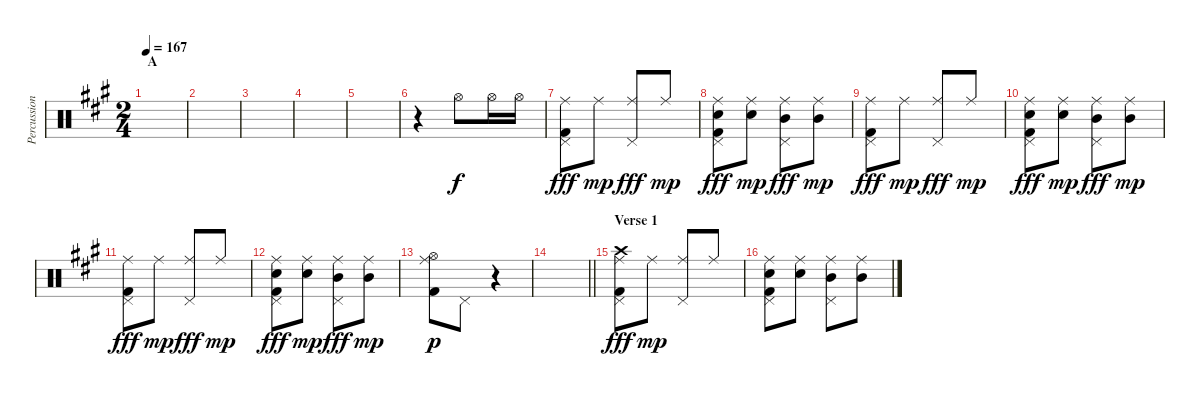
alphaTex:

\track ("Percussion" "Percussion") {instrument percussion}
\staff {score}
\articulation defaults
\ts (2 4)
\section ("" "A")
\tempo 167
\clef neutral
\ks a
|
|
|
|
|
r.4 "Hi-Hat (open)".8 "Hi-Hat (open)".16 "Hi-Hat (open)".16 |
("Ride (middle)" "Pedal Hi-Hat (hit)" "Kick (hit) 2").8{dy fff} "Ride (middle)".8{dy mp} ("Ride (middle)" "Pedal Hi-Hat (hit)").8{dy fff} "Ride (middle)".8{dy mp} |
("Ride (middle)" "Snare (hit) 2" "Pedal Hi-Hat (hit)" "Kick (hit) 2").8{dy fff} ("Ride (middle)" "Snare (hit) 2").8{dy mp} ("Ride (middle)" "Mid Tom (hit)" "Pedal Hi-Hat (hit)").8{dy fff} ("Ride (middle)" "Mid Tom (hit)").8{dy mp} |
("Ride (middle)" "Pedal Hi-Hat (hit)" "Kick (hit) 2").8{dy fff} "Ride (middle)".8{dy mp} ("Ride (middle)" "Pedal Hi-Hat (hit)").8{dy fff} "Ride (middle)".8{dy mp} |
("Ride (middle)" "Snare (hit) 2" "Pedal Hi-Hat (hit)" "Kick (hit) 2").8{dy fff} ("Ride (middle)" "Snare (hit) 2").8{dy mp} ("Ride (middle)" "Mid Tom (hit)" "Pedal Hi-Hat (hit)").8{dy fff} ("Ride (middle)" "Mid Tom (hit)").8{dy mp} |
("Ride (middle)" "Pedal Hi-Hat (hit)" "Kick (hit) 2").8{dy fff} "Ride (middle)".8{dy mp} ("Ride (middle)" "Pedal Hi-Hat (hit)").8{dy fff} "Ride (middle)".8{dy mp} |
("Ride (middle)" "Snare (hit) 2" "Pedal Hi-Hat (hit)" "Kick (hit) 2").8{dy fff} ("Ride (middle)" "Snare (hit) 2").8{dy mp} ("Ride (middle)" "Mid Tom (hit)" "Pedal Hi-Hat (hit)").8{dy fff} ("Ride (middle)" "Mid Tom (hit)").8{dy mp} |
("Hi-Hat (open)" "Ride (middle)" "Kick (hit) 2").8{dy p} "Pedal Hi-Hat (hit)".8 r.4 |
\barLineRight lightlight
|
\section ("" "Verse 1")
("Ride (middle)" "Crash high (hit)" "Pedal Hi-Hat (hit)" "Kick (hit) 2").8{dy fff} "Ride (middle)".8{dy mp} ("Ride (middle)" "Pedal Hi-Hat (hit)").8 "Ride (middle)".8 |
("Ride (middle)" "Snare (hit) 2" "Pedal Hi-Hat (hit)" "Kick (hit) 2").8 ("Ride (middle)" "Snare (hit) 2").8 ("Ride (middle)" "Mid Tom (hit)" "Pedal Hi-Hat (hit)").8 ("Ride (middle)" "Mid Tom (hit)").8
